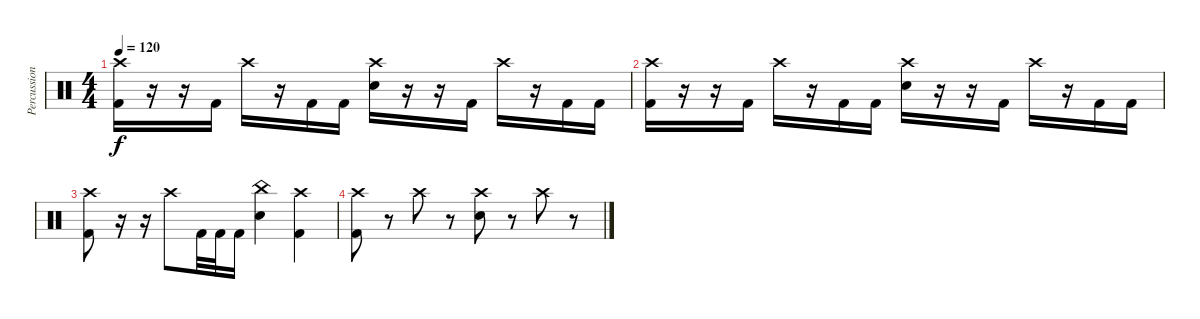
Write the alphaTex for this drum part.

\track ("Percussion" "Percussion") {instrument percussion}
\staff {score}
\articulation defaults
\ts (4 4)
\tempo 120
\clef neutral
\ks c
("Crash high (hit)" "Kick (hit) 2").16{dy f} r.16 r.16 "Kick (hit) 2".16 "Crash high (hit)".16 r.16 "Kick (hit) 2".16 "Kick (hit) 2".16 ("Crash high (hit)" "Snare (hit) 2").16 r.16 r.16 "Kick (hit) 2".16 "Crash high (hit)".16 r.16 "Kick (hit) 2".16 "Kick (hit) 2".16 |
("Crash high (hit)" "Kick (hit) 2").16 r.16 r.16 "Kick (hit) 2".16 "Crash high (hit)".16 r.16 "Kick (hit) 2".16 "Kick (hit) 2".16 ("Crash high (hit)" "Snare (hit) 2").16 r.16 r.16 "Kick (hit) 2".16 "Crash high (hit)".16 r.16 "Kick (hit) 2".16 "Kick (hit) 2".16 |
("Crash high (hit)" "Kick (hit) 2").8 r.16 r.16 "Crash high (hit)".8 "Kick (hit) 2".32 "Kick (hit) 2".32 "Kick (hit) 2".16 ("China (hit)" "Snare (hit) 2").4 ("Crash high (hit)" "Kick (hit) 2").4 |
("Crash high (hit)" "Kick (hit) 2").8 r.8 "Crash high (hit)".8 r.8 ("Crash high (hit)" "Snare (hit) 2").8 r.8 "Crash high (hit)".8 r.8
